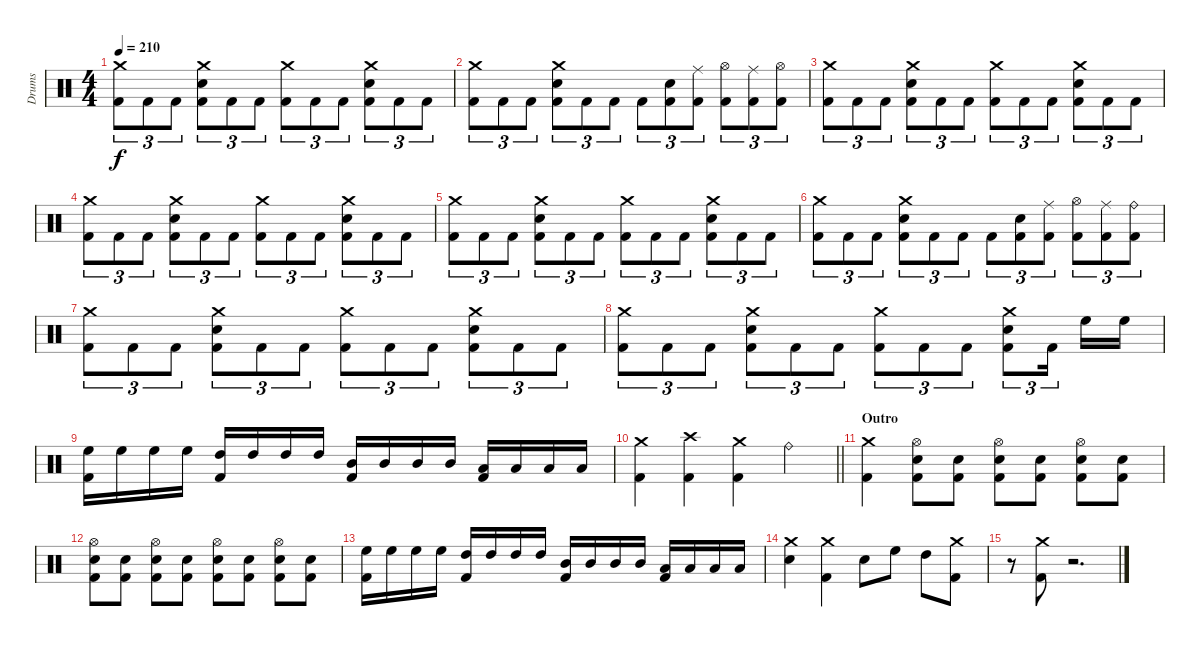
\track ("Drums" "Drums") {instrument percussion}
\staff {score}
\articulation defaults
\ts (4 4)
\tempo 210
\clef neutral
\ks c
("Crash medium (hit)" "Kick (hit) 2").8{tu (3 2) dy f} "Kick (hit) 2".8{tu (3 2)} "Kick (hit) 2".8{tu (3 2)} ("Crash medium (hit)" "Electric Snare (hit)" "Kick (hit) 2").8{tu (3 2)} "Kick (hit) 2".8{tu (3 2)} "Kick (hit) 2".8{tu (3 2)} ("Crash medium (hit)" "Kick (hit) 2").8{tu (3 2)} "Kick (hit) 2".8{tu (3 2)} "Kick (hit) 2".8{tu (3 2)} ("Crash medium (hit)" "Electric Snare (hit)" "Kick (hit) 2").8{tu (3 2)} "Kick (hit) 2".8{tu (3 2)} "Kick (hit) 2".8{tu (3 2)} |
("Crash medium (hit)" "Kick (hit) 2").8{tu (3 2)} "Kick (hit) 2".8{tu (3 2)} "Kick (hit) 2".8{tu (3 2)} ("Crash medium (hit)" "Electric Snare (hit)" "Kick (hit) 2").8{tu (3 2)} "Kick (hit) 2".8{tu (3 2)} "Kick (hit) 2".8{tu (3 2)} "Kick (hit) 2".8{tu (3 2)} ("Electric Snare (hit)" "Kick (hit) 2").8{tu (3 2)} ("Ride (middle)" "Kick (hit) 2").8{tu (3 2)} ("Hi-Hat (open)" "Kick (hit) 2").8{tu (3 2)} ("Ride (middle)" "Kick (hit) 2").8{tu (3 2)} ("Hi-Hat (open)" "Kick (hit) 2").8{tu (3 2)} |
("Crash medium (hit)" "Kick (hit) 2").8{tu (3 2)} "Kick (hit) 2".8{tu (3 2)} "Kick (hit) 2".8{tu (3 2)} ("Crash medium (hit)" "Electric Snare (hit)" "Kick (hit) 2").8{tu (3 2)} "Kick (hit) 2".8{tu (3 2)} "Kick (hit) 2".8{tu (3 2)} ("Crash medium (hit)" "Kick (hit) 2").8{tu (3 2)} "Kick (hit) 2".8{tu (3 2)} "Kick (hit) 2".8{tu (3 2)} ("Crash medium (hit)" "Electric Snare (hit)" "Kick (hit) 2").8{tu (3 2)} "Kick (hit) 2".8{tu (3 2)} "Kick (hit) 2".8{tu (3 2)} |
("Crash medium (hit)" "Kick (hit) 2").8{tu (3 2)} "Kick (hit) 2".8{tu (3 2)} "Kick (hit) 2".8{tu (3 2)} ("Crash medium (hit)" "Electric Snare (hit)" "Kick (hit) 2").8{tu (3 2)} "Kick (hit) 2".8{tu (3 2)} "Kick (hit) 2".8{tu (3 2)} ("Crash medium (hit)" "Kick (hit) 2").8{tu (3 2)} "Kick (hit) 2".8{tu (3 2)} "Kick (hit) 2".8{tu (3 2)} ("Crash medium (hit)" "Electric Snare (hit)" "Kick (hit) 2").8{tu (3 2)} "Kick (hit) 2".8{tu (3 2)} "Kick (hit) 2".8{tu (3 2)} |
("Crash medium (hit)" "Kick (hit) 2").8{tu (3 2)} "Kick (hit) 2".8{tu (3 2)} "Kick (hit) 2".8{tu (3 2)} ("Crash medium (hit)" "Electric Snare (hit)" "Kick (hit) 2").8{tu (3 2)} "Kick (hit) 2".8{tu (3 2)} "Kick (hit) 2".8{tu (3 2)} ("Crash medium (hit)" "Kick (hit) 2").8{tu (3 2)} "Kick (hit) 2".8{tu (3 2)} "Kick (hit) 2".8{tu (3 2)} ("Crash medium (hit)" "Electric Snare (hit)" "Kick (hit) 2").8{tu (3 2)} "Kick (hit) 2".8{tu (3 2)} "Kick (hit) 2".8{tu (3 2)} |
("Crash medium (hit)" "Kick (hit) 2").8{tu (3 2)} "Kick (hit) 2".8{tu (3 2)} "Kick (hit) 2".8{tu (3 2)} ("Crash medium (hit)" "Electric Snare (hit)" "Kick (hit) 2").8{tu (3 2)} "Kick (hit) 2".8{tu (3 2)} "Kick (hit) 2".8{tu (3 2)} "Kick (hit) 2".8{tu (3 2)} ("Electric Snare (hit)" "Kick (hit) 2").8{tu (3 2)} ("Ride (middle)" "Kick (hit) 2").8{tu (3 2)} ("Hi-Hat (open)" "Kick (hit) 2").8{tu (3 2)} ("Ride (middle)" "Kick (hit) 2").8{tu (3 2)} ("Ride (bell)" "Kick (hit) 2").8{tu (3 2)} |
("Crash medium (hit)" "Kick (hit) 2").8{tu (3 2)} "Kick (hit) 2".8{tu (3 2)} "Kick (hit) 2".8{tu (3 2)} ("Crash medium (hit)" "Electric Snare (hit)" "Kick (hit) 2").8{tu (3 2)} "Kick (hit) 2".8{tu (3 2)} "Kick (hit) 2".8{tu (3 2)} ("Crash medium (hit)" "Kick (hit) 2").8{tu (3 2)} "Kick (hit) 2".8{tu (3 2)} "Kick (hit) 2".8{tu (3 2)} ("Crash medium (hit)" "Electric Snare (hit)" "Kick (hit) 2").8{tu (3 2)} "Kick (hit) 2".8{tu (3 2)} "Kick (hit) 2".8{tu (3 2)} |
("Crash medium (hit)" "Kick (hit) 2").8{tu (3 2)} "Kick (hit) 2".8{tu (3 2)} "Kick (hit) 2".8{tu (3 2)} ("Crash medium (hit)" "Electric Snare (hit)" "Kick (hit) 2").8{tu (3 2)} "Kick (hit) 2".8{tu (3 2)} "Kick (hit) 2".8{tu (3 2)} ("Crash medium (hit)" "Kick (hit) 2").8{tu (3 2)} "Kick (hit) 2".8{tu (3 2)} "Kick (hit) 2".8{tu (3 2)} ("Crash medium (hit)" "Electric Snare (hit)" "Kick (hit) 2").8{tu (3 2)} "Kick (hit) 2".16{tu (3 2) beam splitsecondary} "High Floor Tom (hit)".16 "High Floor Tom (hit)".16 |
("High Floor Tom (hit)" "Kick (hit) 2").16 "High Floor Tom (hit)".16 "High Floor Tom (hit)".16 "High Floor Tom (hit)".16 ("High Tom (hit)" "Kick (hit) 2").16 "High Tom (hit)".16 "High Tom (hit)".16 "High Tom (hit)".16 ("Mid Tom (hit)" "Kick (hit) 2").16 "Mid Tom (hit)".16 "Mid Tom (hit)".16 "Mid Tom (hit)".16 ("Low Tom (hit)" "Kick (hit) 2").16 "Low Tom (hit)".16 "Low Tom (hit)".16 "Low Tom (hit)".16 |
\barLineRight lightlight
("Crash medium (hit)" "Kick (hit) 2").4 ("Crash high (hit)" "Kick (hit) 2").4 ("Crash medium (hit)" "Kick (hit) 2").4 "Ride (bell)".4 |
\section ("" "Outro")
("Crash medium (hit)" "Kick (hit) 2").4 ("Hi-Hat (open)" "Electric Snare (hit)" "Kick (hit) 2").8 ("Electric Snare (hit)" "Kick (hit) 2").8 ("Hi-Hat (open)" "Electric Snare (hit)" "Kick (hit) 2").8 ("Electric Snare (hit)" "Kick (hit) 2").8 ("Hi-Hat (open)" "Electric Snare (hit)" "Kick (hit) 2").8 ("Electric Snare (hit)" "Kick (hit) 2").8 |
("Hi-Hat (open)" "Electric Snare (hit)" "Kick (hit) 2").8 ("Electric Snare (hit)" "Kick (hit) 2").8 ("Hi-Hat (open)" "Electric Snare (hit)" "Kick (hit) 2").8 ("Electric Snare (hit)" "Kick (hit) 2").8 ("Hi-Hat (open)" "Electric Snare (hit)" "Kick (hit) 2").8 ("Electric Snare (hit)" "Kick (hit) 2").8 ("Hi-Hat (open)" "Electric Snare (hit)" "Kick (hit) 2").8 ("Electric Snare (hit)" "Kick (hit) 2").8 |
("High Floor Tom (hit)" "Kick (hit) 2").16 "High Floor Tom (hit)".16 "High Floor Tom (hit)".16 "High Floor Tom (hit)".16 ("High Tom (hit)" "Kick (hit) 2").16 "High Tom (hit)".16 "High Tom (hit)".16 "High Tom (hit)".16 ("Mid Tom (hit)" "Kick (hit) 2").16 "Mid Tom (hit)".16 "Mid Tom (hit)".16 "Mid Tom (hit)".16 ("Low Tom (hit)" "Kick (hit) 2").16 "Low Tom (hit)".16 "Low Tom (hit)".16 "Low Tom (hit)".16 |
("Crash medium (hit)" "Electric Snare (hit)").4 ("Crash medium (hit)" "Kick (hit) 2").4 "Electric Snare (hit)".8 "High Floor Tom (hit)".8 "High Tom (hit)".8 ("Crash medium (hit)" "Kick (hit) 2").8 |
r.8 ("Crash medium (hit)" "Kick (hit) 2").8 r.2{d}
